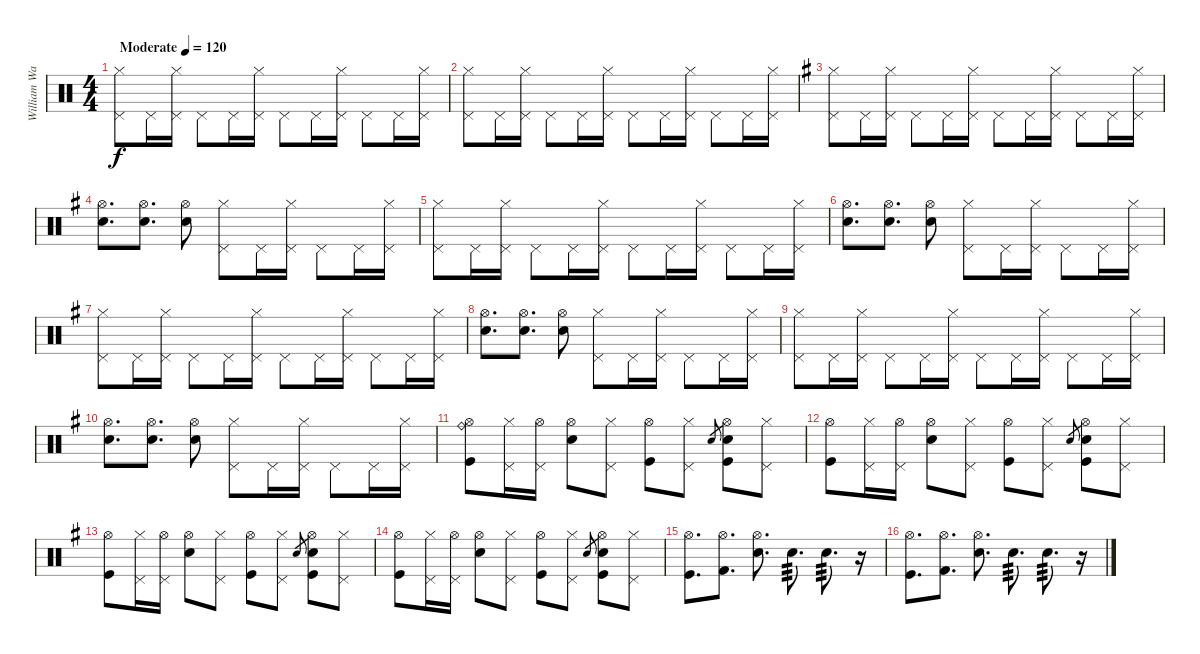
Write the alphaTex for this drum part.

\track ("William Ward" "William Wa") {instrument percussion}
\staff {score}
\articulation defaults
\ts (4 4)
\tempo (120 "Moderate")
\clef neutral
\ks c
("Pedal Hi-Hat (hit)" "Hi-Hat (closed)").8{dy f} "Pedal Hi-Hat (hit)".16 ("Pedal Hi-Hat (hit)" "Hi-Hat (closed)").16 "Pedal Hi-Hat (hit)".8 "Pedal Hi-Hat (hit)".16 ("Pedal Hi-Hat (hit)" "Hi-Hat (closed)").16 "Pedal Hi-Hat (hit)".8 "Pedal Hi-Hat (hit)".16 ("Pedal Hi-Hat (hit)" "Hi-Hat (closed)").16 "Pedal Hi-Hat (hit)".8 "Pedal Hi-Hat (hit)".16 ("Pedal Hi-Hat (hit)" "Hi-Hat (closed)").16 |
("Pedal Hi-Hat (hit)" "Hi-Hat (closed)").8 "Pedal Hi-Hat (hit)".16 ("Pedal Hi-Hat (hit)" "Hi-Hat (closed)").16 "Pedal Hi-Hat (hit)".8 "Pedal Hi-Hat (hit)".16 ("Pedal Hi-Hat (hit)" "Hi-Hat (closed)").16 "Pedal Hi-Hat (hit)".8 "Pedal Hi-Hat (hit)".16 ("Pedal Hi-Hat (hit)" "Hi-Hat (closed)").16 "Pedal Hi-Hat (hit)".8 "Pedal Hi-Hat (hit)".16 ("Pedal Hi-Hat (hit)" "Hi-Hat (closed)").16 |
\ks g
("Pedal Hi-Hat (hit)" "Hi-Hat (closed)").8 "Pedal Hi-Hat (hit)".16 ("Pedal Hi-Hat (hit)" "Hi-Hat (closed)").16 "Pedal Hi-Hat (hit)".8 "Pedal Hi-Hat (hit)".16 ("Pedal Hi-Hat (hit)" "Hi-Hat (closed)").16 "Pedal Hi-Hat (hit)".8 "Pedal Hi-Hat (hit)".16 ("Pedal Hi-Hat (hit)" "Hi-Hat (closed)").16 "Pedal Hi-Hat (hit)".8 "Pedal Hi-Hat (hit)".16 ("Pedal Hi-Hat (hit)" "Hi-Hat (closed)").16 |
("Electric Snare (hit)" "Hi-Hat (open)").8{d} ("Snare (hit) 2" "Hi-Hat (open)").8{d} ("Electric Snare (hit)" "Hi-Hat (open)").8 ("Pedal Hi-Hat (hit)" "Hi-Hat (closed)").8 "Pedal Hi-Hat (hit)".16 ("Pedal Hi-Hat (hit)" "Hi-Hat (closed)").16 "Pedal Hi-Hat (hit)".8 "Pedal Hi-Hat (hit)".16 ("Pedal Hi-Hat (hit)" "Hi-Hat (closed)").16 |
("Pedal Hi-Hat (hit)" "Hi-Hat (closed)").8 "Pedal Hi-Hat (hit)".16 ("Pedal Hi-Hat (hit)" "Hi-Hat (closed)").16 "Pedal Hi-Hat (hit)".8 "Pedal Hi-Hat (hit)".16 ("Pedal Hi-Hat (hit)" "Hi-Hat (closed)").16 "Pedal Hi-Hat (hit)".8 "Pedal Hi-Hat (hit)".16 ("Pedal Hi-Hat (hit)" "Hi-Hat (closed)").16 "Pedal Hi-Hat (hit)".8 "Pedal Hi-Hat (hit)".16 ("Pedal Hi-Hat (hit)" "Hi-Hat (closed)").16 |
("Electric Snare (hit)" "Hi-Hat (open)").8{d} ("Snare (hit) 2" "Hi-Hat (open)").8{d} ("Electric Snare (hit)" "Hi-Hat (open)").8 ("Pedal Hi-Hat (hit)" "Hi-Hat (closed)").8 "Pedal Hi-Hat (hit)".16 ("Pedal Hi-Hat (hit)" "Hi-Hat (closed)").16 "Pedal Hi-Hat (hit)".8 "Pedal Hi-Hat (hit)".16 ("Pedal Hi-Hat (hit)" "Hi-Hat (closed)").16 |
("Pedal Hi-Hat (hit)" "Hi-Hat (closed)").8 "Pedal Hi-Hat (hit)".16 ("Pedal Hi-Hat (hit)" "Hi-Hat (closed)").16 "Pedal Hi-Hat (hit)".8 "Pedal Hi-Hat (hit)".16 ("Pedal Hi-Hat (hit)" "Hi-Hat (closed)").16 "Pedal Hi-Hat (hit)".8 "Pedal Hi-Hat (hit)".16 ("Pedal Hi-Hat (hit)" "Hi-Hat (closed)").16 "Pedal Hi-Hat (hit)".8 "Pedal Hi-Hat (hit)".16 ("Pedal Hi-Hat (hit)" "Hi-Hat (closed)").16 |
("Electric Snare (hit)" "Hi-Hat (open)").8{d} ("Snare (hit) 2" "Hi-Hat (open)").8{d} ("Electric Snare (hit)" "Hi-Hat (open)").8 ("Pedal Hi-Hat (hit)" "Hi-Hat (closed)").8 "Pedal Hi-Hat (hit)".16 ("Pedal Hi-Hat (hit)" "Hi-Hat (closed)").16 "Pedal Hi-Hat (hit)".8 "Pedal Hi-Hat (hit)".16 ("Pedal Hi-Hat (hit)" "Hi-Hat (closed)").16 |
("Pedal Hi-Hat (hit)" "Hi-Hat (closed)").8 "Pedal Hi-Hat (hit)".16 ("Pedal Hi-Hat (hit)" "Hi-Hat (closed)").16 "Pedal Hi-Hat (hit)".8 "Pedal Hi-Hat (hit)".16 ("Pedal Hi-Hat (hit)" "Hi-Hat (closed)").16 "Pedal Hi-Hat (hit)".8 "Pedal Hi-Hat (hit)".16 ("Pedal Hi-Hat (hit)" "Hi-Hat (closed)").16 "Pedal Hi-Hat (hit)".8 "Pedal Hi-Hat (hit)".16 ("Pedal Hi-Hat (hit)" "Hi-Hat (closed)").16 |
("Electric Snare (hit)" "Hi-Hat (open)").8{d} ("Snare (hit) 2" "Hi-Hat (open)").8{d} ("Electric Snare (hit)" "Hi-Hat (open)").8 ("Pedal Hi-Hat (hit)" "Hi-Hat (closed)").8 "Pedal Hi-Hat (hit)".16 ("Pedal Hi-Hat (hit)" "Hi-Hat (closed)").16 "Pedal Hi-Hat (hit)".8 "Pedal Hi-Hat (hit)".16 ("Pedal Hi-Hat (hit)" "Hi-Hat (closed)").16 |
("Kick (hit)" "Hi-Hat (open)" "Ride (bell)").8 ("Pedal Hi-Hat (hit)" "Hi-Hat (closed)").16 ("Pedal Hi-Hat (hit)" "Hi-Hat (open)").16 ("Hi-Hat (open)" "Electric Snare (hit)").8 ("Hi-Hat (closed)" "Pedal Hi-Hat (hit)").8 ("Kick (hit)" "Hi-Hat (open)").8 ("Pedal Hi-Hat (hit)" "Hi-Hat (closed)").8 "Electric Snare (hit)".8{gr} ("Kick (hit)" "Electric Snare (hit)" "Hi-Hat (open)").8 ("Pedal Hi-Hat (hit)" "Hi-Hat (closed)").8 |
("Kick (hit)" "Hi-Hat (open)").8 ("Pedal Hi-Hat (hit)" "Hi-Hat (closed)").16 ("Pedal Hi-Hat (hit)" "Hi-Hat (open)").16 ("Hi-Hat (open)" "Electric Snare (hit)").8 ("Hi-Hat (closed)" "Pedal Hi-Hat (hit)").8 ("Kick (hit)" "Hi-Hat (open)").8 ("Pedal Hi-Hat (hit)" "Hi-Hat (closed)").8 "Electric Snare (hit)".8{gr} ("Kick (hit)" "Electric Snare (hit)" "Hi-Hat (open)").8 ("Pedal Hi-Hat (hit)" "Hi-Hat (closed)").8 |
("Kick (hit)" "Hi-Hat (open)").8 ("Pedal Hi-Hat (hit)" "Hi-Hat (closed)").16 ("Pedal Hi-Hat (hit)" "Hi-Hat (open)").16 ("Hi-Hat (open)" "Electric Snare (hit)").8 ("Hi-Hat (closed)" "Pedal Hi-Hat (hit)").8 ("Kick (hit)" "Hi-Hat (open)").8 ("Pedal Hi-Hat (hit)" "Hi-Hat (closed)").8 "Electric Snare (hit)".8{gr} ("Kick (hit)" "Electric Snare (hit)" "Hi-Hat (open)").8 ("Pedal Hi-Hat (hit)" "Hi-Hat (closed)").8 |
("Kick (hit)" "Hi-Hat (open)").8 ("Pedal Hi-Hat (hit)" "Hi-Hat (closed)").16 ("Pedal Hi-Hat (hit)" "Hi-Hat (open)").16 ("Hi-Hat (open)" "Electric Snare (hit)").8 ("Hi-Hat (closed)" "Pedal Hi-Hat (hit)").8 ("Kick (hit)" "Hi-Hat (open)").8 ("Pedal Hi-Hat (hit)" "Hi-Hat (closed)").8 "Electric Snare (hit)".8{gr} ("Kick (hit)" "Electric Snare (hit)" "Hi-Hat (open)").8 ("Pedal Hi-Hat (hit)" "Hi-Hat (closed)").8 |
("Kick (hit)" "Hi-Hat (open)").8{d} ("Kick (hit) 2" "Hi-Hat (open)").8{d} ("Electric Snare (hit)" "Hi-Hat (open)").8{d} "Electric Snare (hit)".8{d tp 3} "Electric Snare (hit)".8{d tp 3} r.16 |
("Kick (hit)" "Hi-Hat (open)").8{d} ("Kick (hit) 2" "Hi-Hat (open)").8{d} ("Electric Snare (hit)" "Hi-Hat (open)").8{d} "Electric Snare (hit)".8{d tp 3} "Electric Snare (hit)".8{d tp 3} r.16
